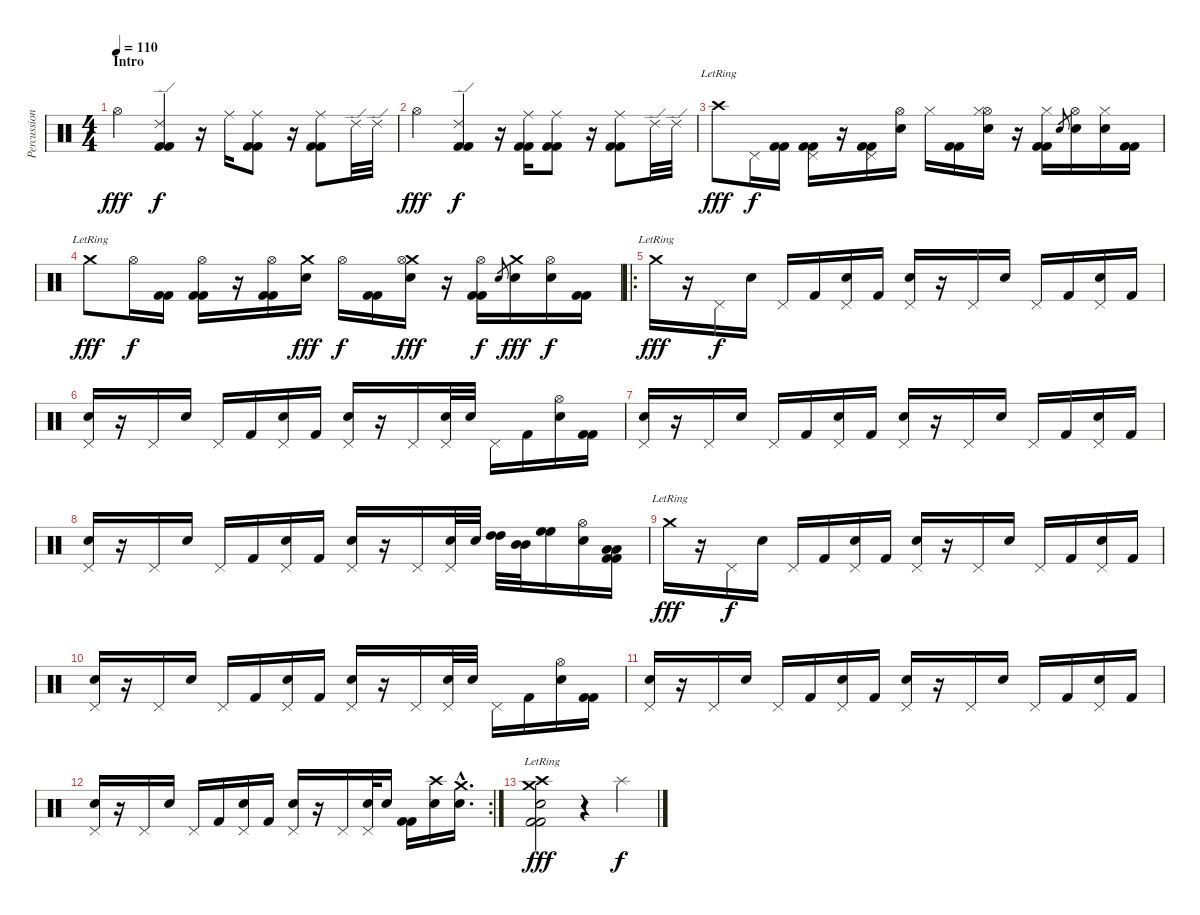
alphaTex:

\track ("Percussion" "Percussion") {instrument percussion}
\staff {score}
\articulation defaults
\ts (4 4)
\section ("" "Intro")
\tempo 110
\clef neutral
\ks c "Hi-Hat (open)".4{dy fff}
("Ride (edge) 2" "Kick (hit) 2" "Kick (hit) 2").4{dy f} r.16 "Ride (middle)".16 ("Ride (middle)" "Kick (hit) 2" "Kick (hit) 2").8 r.16 ("Ride (middle)" "Kick (hit) 2" "Kick (hit) 2").8 "Ride (edge) 2".32 "Ride (edge) 2".32 |
"Hi-Hat (open)".4{dy fff} ("Ride (edge) 2" "Kick (hit) 2" "Kick (hit) 2").4{dy f} r.16 ("Ride (middle)" "Kick (hit) 2" "Kick (hit) 2").16 ("Ride (middle)" "Kick (hit) 2" "Kick (hit) 2").8 r.16 ("Ride (middle)" "Kick (hit) 2" "Kick (hit) 2").8 "Ride (edge) 2".32 "Ride (edge) 2".32 |
"Crash high (hit)"{lr}.8{dy fff} "Pedal Hi-Hat (hit)".16{dy f} ("Kick (hit) 2" "Kick (hit) 2").16 ("Pedal Hi-Hat (hit)" "Kick (hit) 2" "Kick (hit) 2").16 r.16 ("Pedal Hi-Hat (hit)" "Kick (hit) 2" "Kick (hit) 2").16 ("Hi-Hat (open)" "Snare (hit) 2").16 "Hi-Hat (closed)".16 ("Kick (hit) 2" "Kick (hit) 2").16 ("Hi-Hat (open)" "Hi-Hat (closed)" "Snare (hit) 2").16 r.16 ("Hi-Hat (closed)" "Kick (hit) 2" "Kick (hit) 2").16 "Snare (hit) 2".8{gr} ("Hi-Hat (open)" "Snare (hit) 2").16 ("Hi-Hat (closed)" "Snare (hit) 2").16 ("Kick (hit) 2" "Kick (hit) 2").16 |
"Crash medium (hit)"{lr}.8{dy fff} "Hi-Hat (open)".16{dy f} ("Kick (hit) 2" "Kick (hit) 2").16 ("Hi-Hat (open)" "Kick (hit) 2" "Kick (hit) 2").16 r.16 ("Hi-Hat (open)" "Kick (hit) 2" "Kick (hit) 2").16 ("Crash medium (hit)" "Snare (hit) 2").16{dy fff} "Hi-Hat (open)".16{dy f} ("Kick (hit) 2" "Kick (hit) 2").16 ("Crash medium (hit)" "Hi-Hat (open)" "Snare (hit) 2").16{dy fff} r.16 ("Hi-Hat (open)" "Kick (hit) 2" "Kick (hit) 2").16{dy f} "Snare (hit) 2".8{gr} ("Crash medium (hit)" "Snare (hit) 2").16{dy fff} ("Hi-Hat (open)" "Snare (hit) 2").16{dy f} ("Kick (hit) 2" "Kick (hit) 2").16 |
\ro "Crash medium (hit)"{lr}.16{dy fff}
r.16 "Pedal Hi-Hat (hit)".16{dy f} "Electric Snare (hit)".16 "Pedal Hi-Hat (hit)".16 "Kick (hit) 2".16 ("Electric Snare (hit)" "Pedal Hi-Hat (hit)").16 "Kick (hit) 2".16 ("Electric Snare (hit)" "Pedal Hi-Hat (hit)").16 r.16 "Pedal Hi-Hat (hit)".16 "Electric Snare (hit)".16 "Pedal Hi-Hat (hit)".16 "Kick (hit) 2".16 ("Electric Snare (hit)" "Pedal Hi-Hat (hit)").16 "Kick (hit) 2".16 |
("Electric Snare (hit)" "Pedal Hi-Hat (hit)").16 r.16 "Pedal Hi-Hat (hit)".16 "Electric Snare (hit)".16 "Pedal Hi-Hat (hit)".16 "Kick (hit) 2".16 ("Electric Snare (hit)" "Pedal Hi-Hat (hit)").16 "Kick (hit) 2".16 ("Electric Snare (hit)" "Pedal Hi-Hat (hit)").16 r.16 "Pedal Hi-Hat (hit)".16 ("Electric Snare (hit)" "Pedal Hi-Hat (hit)").32 "Electric Snare (hit)".32 "Pedal Hi-Hat (hit)".16 "Kick (hit) 2".16 ("Snare (hit) 2" "Hi-Hat (open)").16 ("Kick (hit) 2" "Kick (hit) 2").16 |
("Electric Snare (hit)" "Pedal Hi-Hat (hit)").16 r.16 "Pedal Hi-Hat (hit)".16 "Electric Snare (hit)".16 "Pedal Hi-Hat (hit)".16 "Kick (hit) 2".16 ("Electric Snare (hit)" "Pedal Hi-Hat (hit)").16 "Kick (hit) 2".16 ("Electric Snare (hit)" "Pedal Hi-Hat (hit)").16 r.16 "Pedal Hi-Hat (hit)".16 "Electric Snare (hit)".16 "Pedal Hi-Hat (hit)".16 "Kick (hit) 2".16 ("Electric Snare (hit)" "Pedal Hi-Hat (hit)").16 "Kick (hit) 2".16 |
("Electric Snare (hit)" "Pedal Hi-Hat (hit)").16 r.16 "Pedal Hi-Hat (hit)".16 "Electric Snare (hit)".16 "Pedal Hi-Hat (hit)".16 "Kick (hit) 2".16 ("Electric Snare (hit)" "Pedal Hi-Hat (hit)").16 "Kick (hit) 2".16 ("Electric Snare (hit)" "Pedal Hi-Hat (hit)").16 r.16 "Pedal Hi-Hat (hit)".16 ("Electric Snare (hit)" "Pedal Hi-Hat (hit)").32 "Electric Snare (hit)".32 ("High Tom (hit)" "High Tom (hit)").32 ("Mid Tom (hit)" "Mid Tom (hit)").32 ("High Floor Tom (hit)" "High Floor Tom (hit)").16 ("Snare (hit) 2" "Hi-Hat (open)").16 ("Low Tom (hit)" "Low Tom (hit)" "Kick (hit) 2" "Kick (hit) 2").16 |
"Crash medium (hit)"{lr}.16{dy fff} r.16 "Pedal Hi-Hat (hit)".16{dy f} "Electric Snare (hit)".16 "Pedal Hi-Hat (hit)".16 "Kick (hit) 2".16 ("Electric Snare (hit)" "Pedal Hi-Hat (hit)").16 "Kick (hit) 2".16 ("Electric Snare (hit)" "Pedal Hi-Hat (hit)").16 r.16 "Pedal Hi-Hat (hit)".16 "Electric Snare (hit)".16 "Pedal Hi-Hat (hit)".16 "Kick (hit) 2".16 ("Electric Snare (hit)" "Pedal Hi-Hat (hit)").16 "Kick (hit) 2".16 |
("Electric Snare (hit)" "Pedal Hi-Hat (hit)").16 r.16 "Pedal Hi-Hat (hit)".16 "Electric Snare (hit)".16 "Pedal Hi-Hat (hit)".16 "Kick (hit) 2".16 ("Electric Snare (hit)" "Pedal Hi-Hat (hit)").16 "Kick (hit) 2".16 ("Electric Snare (hit)" "Pedal Hi-Hat (hit)").16 r.16 "Pedal Hi-Hat (hit)".16 ("Electric Snare (hit)" "Pedal Hi-Hat (hit)").32 "Electric Snare (hit)".32 "Pedal Hi-Hat (hit)".16 "Kick (hit) 2".16 ("Snare (hit) 2" "Hi-Hat (open)").16 ("Kick (hit) 2" "Kick (hit) 2").16 |
("Electric Snare (hit)" "Pedal Hi-Hat (hit)").16 r.16 "Pedal Hi-Hat (hit)".16 "Electric Snare (hit)".16 "Pedal Hi-Hat (hit)".16 "Kick (hit) 2".16 ("Electric Snare (hit)" "Pedal Hi-Hat (hit)").16 "Kick (hit) 2".16 ("Electric Snare (hit)" "Pedal Hi-Hat (hit)").16 r.16 "Pedal Hi-Hat (hit)".16 "Electric Snare (hit)".16 "Pedal Hi-Hat (hit)".16 "Kick (hit) 2".16 ("Electric Snare (hit)" "Pedal Hi-Hat (hit)").16 "Kick (hit) 2".16 |
\rc 2
("Electric Snare (hit)" "Pedal Hi-Hat (hit)").16 r.16 "Pedal Hi-Hat (hit)".16 "Electric Snare (hit)".16 "Pedal Hi-Hat (hit)".16 "Kick (hit) 2".16 ("Electric Snare (hit)" "Pedal Hi-Hat (hit)").16 "Kick (hit) 2".16 ("Electric Snare (hit)" "Pedal Hi-Hat (hit)").16 r.16 "Pedal Hi-Hat (hit)".16 ("Electric Snare (hit)" "Pedal Hi-Hat (hit)").32 "Electric Snare (hit)".16 ("Kick (hit) 2" "Kick (hit) 2").16 ("Snare (hit) 2" "Crash high (hit)").16 ("Snare (hit) 2"{hac} "Crash medium (hit)"{hac}).16{d} |
("Crash medium (hit)"{lr} "Crash high (hit)"{lr} "Snare (hit) 2" "Kick (hit) 2" "Kick (hit) 2").2{dy fff} r.4 "Splash (hit)".4{dy f}
